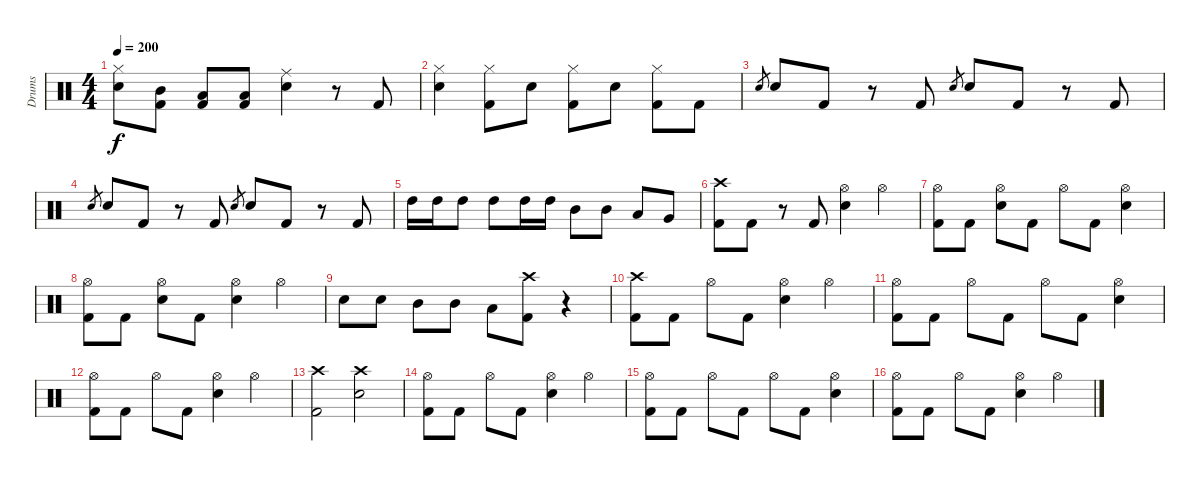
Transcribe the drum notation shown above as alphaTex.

\track ("Drums" "Drums") {instrument percussion}
\staff {score}
\articulation defaults
\ts (4 4)
\tempo 200
\clef neutral
\ks c
("Hi-Hat (closed)" "Electric Snare (hit)").8{dy f} ("Mid Tom (hit)" "Kick (hit) 2").8 ("Low Tom (hit)" "Kick (hit) 2").8 ("Low Tom (hit)" "Kick (hit) 2").8 ("Ride (middle)" "Electric Snare (hit)").4 r.8 "Kick (hit) 2".8 |
("Hi-Hat (closed)" "Electric Snare (hit)").4 ("Hi-Hat (closed)" "Kick (hit) 2").8 "Electric Snare (hit)".8 ("Hi-Hat (closed)" "Kick (hit) 2").8 "Electric Snare (hit)".8 ("Hi-Hat (closed)" "Kick (hit) 2").8 "Kick (hit) 2".8 |
"Electric Snare (hit)".8{gr} "Electric Snare (hit)".8 "Kick (hit) 2".8 r.8 "Kick (hit) 2".8 "Electric Snare (hit)".8{gr} "Electric Snare (hit)".8 "Kick (hit) 2".8 r.8 "Kick (hit) 2".8 |
"Electric Snare (hit)".8{gr} "Electric Snare (hit)".8 "Kick (hit) 2".8 r.8 "Kick (hit) 2".8 "Electric Snare (hit)".8{gr} "Electric Snare (hit)".8 "Kick (hit) 2".8 r.8 "Kick (hit) 2".8 |
"High Tom (hit)".16 "High Tom (hit)".16 "High Tom (hit)".8 "High Tom (hit)".8 "High Tom (hit)".16 "High Tom (hit)".16 "Mid Tom (hit)".8 "Mid Tom (hit)".8 "Low Tom (hit)".8 "Very Low Tom (hit)".8 |
("Crash high (hit)" "Kick (hit) 2").8 "Kick (hit) 2".8 r.8 "Kick (hit) 2".8 ("Hi-Hat (open)" "Electric Snare (hit)").4 "Hi-Hat (open)".4 |
("Hi-Hat (open)" "Kick (hit) 2").8 "Kick (hit) 2".8 ("Hi-Hat (open)" "Electric Snare (hit)").8 "Kick (hit) 2".8 "Hi-Hat (open)".8 "Kick (hit) 2".8 ("Hi-Hat (open)" "Electric Snare (hit)").4 |
("Hi-Hat (open)" "Kick (hit) 2").8 "Kick (hit) 2".8 ("Hi-Hat (open)" "Electric Snare (hit)").8 "Kick (hit) 2".8 ("Hi-Hat (open)" "Electric Snare (hit)").4 "Hi-Hat (open)".4 |
"Electric Snare (hit)".8 "Electric Snare (hit)".8 "Mid Tom (hit)".8 "Mid Tom (hit)".8 "Low Tom (hit)".8 ("Crash high (hit)" "Kick (hit) 2").8 r.4 |
("Crash high (hit)" "Kick (hit) 2").8 "Kick (hit) 2".8 "Hi-Hat (open)".8 "Kick (hit) 2".8 ("Hi-Hat (open)" "Electric Snare (hit)").4 "Hi-Hat (open)".4 |
("Hi-Hat (open)" "Kick (hit) 2").8 "Kick (hit) 2".8 "Hi-Hat (open)".8 "Kick (hit) 2".8 "Hi-Hat (open)".8 "Kick (hit) 2".8 ("Hi-Hat (open)" "Electric Snare (hit)").4 |
("Hi-Hat (open)" "Kick (hit) 2").8 "Kick (hit) 2".8 "Hi-Hat (open)".8 "Kick (hit) 2".8 ("Hi-Hat (open)" "Electric Snare (hit)").4 "Hi-Hat (open)".4 |
("Crash high (hit)" "Kick (hit) 2").2 ("Crash high (hit)" "Electric Snare (hit)").2 |
("Hi-Hat (open)" "Kick (hit) 2").8 "Kick (hit) 2".8 "Hi-Hat (open)".8 "Kick (hit) 2".8 ("Hi-Hat (open)" "Electric Snare (hit)").4 "Hi-Hat (open)".4 |
("Hi-Hat (open)" "Kick (hit) 2").8 "Kick (hit) 2".8 "Hi-Hat (open)".8 "Kick (hit) 2".8 "Hi-Hat (open)".8 "Kick (hit) 2".8 ("Hi-Hat (open)" "Electric Snare (hit)").4 |
("Hi-Hat (open)" "Kick (hit) 2").8 "Kick (hit) 2".8 "Hi-Hat (open)".8 "Kick (hit) 2".8 ("Hi-Hat (open)" "Electric Snare (hit)").4 "Hi-Hat (open)".4
